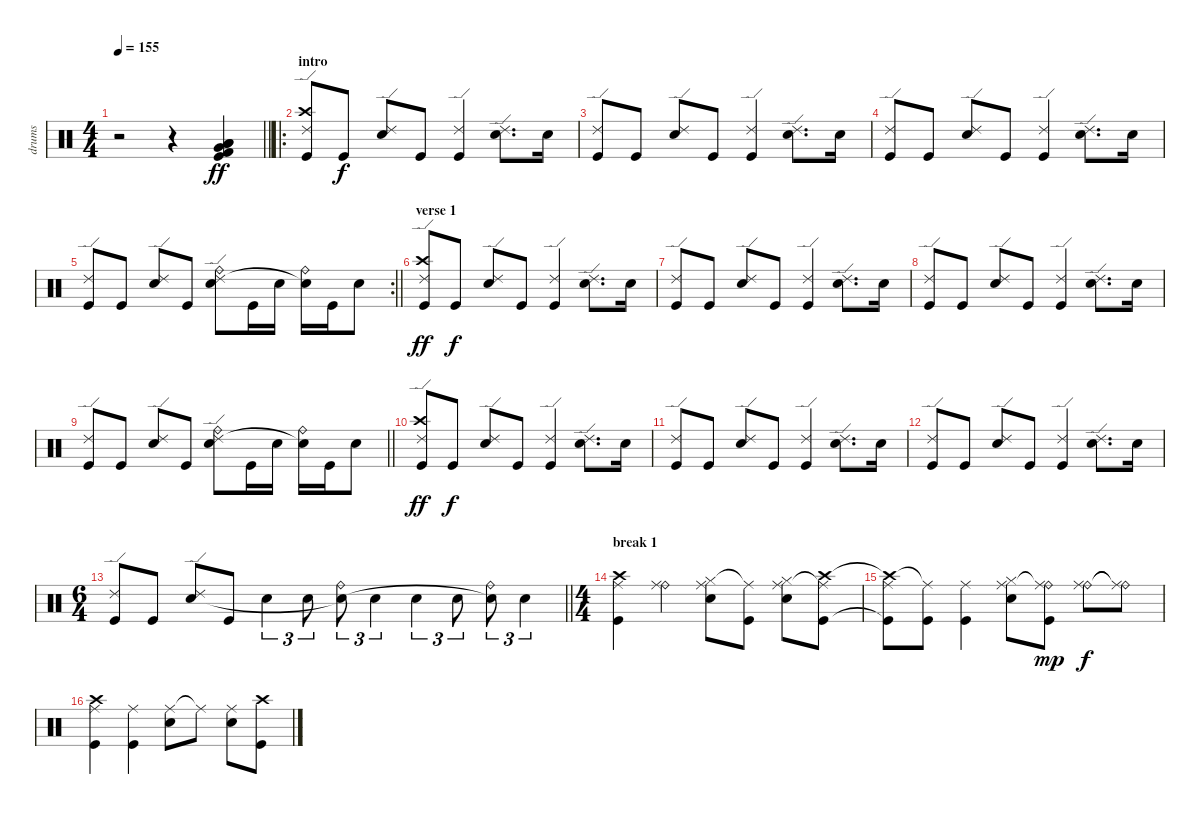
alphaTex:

\track ("drums" "drums") {instrument percussion}
\staff {score}
\articulation defaults
\ts (4 4)
\tempo 155
\clef neutral
\barLineRight lightlight
\ks c
r.2{dy mp} r.4 ("Kick (hit) 2" "Low Tom (hit)" "Very Low Tom (hit)" "Low Floor Tom (hit)" "Kick (hit)").4{dy ff} |
\ro
\section ("" "intro ")
("Crash high (hit)" "Ride (edge) 2" "Kick (hit)").8 "Kick (hit)".8{dy f} ("Ride (edge) 2" "Electric Snare (hit)").8 "Kick (hit)".8 ("Ride (edge) 2" "Kick (hit)").4 ("Ride (edge) 2" "Electric Snare (hit)").8{d} "Electric Snare (hit)".16 |
("Ride (edge) 2" "Kick (hit)").8 "Kick (hit)".8 ("Ride (edge) 2" "Electric Snare (hit)").8 "Kick (hit)".8 ("Ride (edge) 2" "Kick (hit)").4 ("Ride (edge) 2" "Electric Snare (hit)").8{d} "Electric Snare (hit)".16 |
("Ride (edge) 2" "Kick (hit)").8 "Kick (hit)".8 ("Ride (edge) 2" "Electric Snare (hit)").8 "Kick (hit)".8 ("Ride (edge) 2" "Kick (hit)").4 ("Ride (edge) 2" "Electric Snare (hit)").8{d} "Electric Snare (hit)".16 |
\rc 2
\barLineRight lightlight
("Ride (edge) 2" "Kick (hit)").8 "Kick (hit)".8 ("Ride (edge) 2" "Electric Snare (hit)").8 "Kick (hit)".8 ("Ride (bell)" "Ride (edge) 2" "Electric Snare (hit)").8 "Kick (hit)".16 "Electric Snare (hit)".16 ("Ride (bell)" "Electric Snare (hit)"{t}).16 "Kick (hit)".16 "Electric Snare (hit)".8 |
\section ("" "verse 1")
("Crash high (hit)" "Ride (edge) 2" "Kick (hit)").8{dy ff} "Kick (hit)".8{dy f} ("Ride (edge) 2" "Electric Snare (hit)").8 "Kick (hit)".8 ("Ride (edge) 2" "Kick (hit)").4 ("Ride (edge) 2" "Electric Snare (hit)").8{d} "Electric Snare (hit)".16 |
("Ride (edge) 2" "Kick (hit)").8 "Kick (hit)".8 ("Ride (edge) 2" "Electric Snare (hit)").8 "Kick (hit)".8 ("Ride (edge) 2" "Kick (hit)").4 ("Ride (edge) 2" "Electric Snare (hit)").8{d} "Electric Snare (hit)".16 |
("Ride (edge) 2" "Kick (hit)").8 "Kick (hit)".8 ("Ride (edge) 2" "Electric Snare (hit)").8 "Kick (hit)".8 ("Ride (edge) 2" "Kick (hit)").4 ("Ride (edge) 2" "Electric Snare (hit)").8{d} "Electric Snare (hit)".16 |
\barLineRight lightlight
("Ride (edge) 2" "Kick (hit)").8 "Kick (hit)".8 ("Ride (edge) 2" "Electric Snare (hit)").8 "Kick (hit)".8 ("Ride (bell)" "Ride (edge) 2" "Electric Snare (hit)").8 "Kick (hit)".16 "Electric Snare (hit)".16 ("Ride (bell)" "Electric Snare (hit)"{t}).16 "Kick (hit)".16 "Electric Snare (hit)".8 |
("Crash high (hit)" "Ride (edge) 2" "Kick (hit)").8{dy ff} "Kick (hit)".8{dy f} ("Ride (edge) 2" "Electric Snare (hit)").8 "Kick (hit)".8 ("Ride (edge) 2" "Kick (hit)").4 ("Ride (edge) 2" "Electric Snare (hit)").8{d} "Electric Snare (hit)".16 |
("Ride (edge) 2" "Kick (hit)").8 "Kick (hit)".8 ("Ride (edge) 2" "Electric Snare (hit)").8 "Kick (hit)".8 ("Ride (edge) 2" "Kick (hit)").4 ("Ride (edge) 2" "Electric Snare (hit)").8{d} "Electric Snare (hit)".16 |
("Ride (edge) 2" "Kick (hit)").8 "Kick (hit)".8 ("Ride (edge) 2" "Electric Snare (hit)").8 "Kick (hit)".8 ("Ride (edge) 2" "Kick (hit)").4 ("Ride (edge) 2" "Electric Snare (hit)").8{d} "Electric Snare (hit)".16 |
\ts (6 4)
\barLineRight lightlight
("Ride (edge) 2" "Kick (hit)").8 "Kick (hit)".8 ("Ride (edge) 2" "Electric Snare (hit)").8 "Kick (hit)".8 "Electric Snare (hit)".4{tu (3 2)} "Electric Snare (hit)".8{tu (3 2)} ("Ride (bell)" "Electric Snare (hit)"{t}).8{tu (3 2)} "Electric Snare (hit)".4{tu (3 2)} "Electric Snare (hit)".4{tu (3 2)} "Electric Snare (hit)".8{tu (3 2)} ("Ride (bell)" "Electric Snare (hit)"{t}).8{tu (3 2)} "Electric Snare (hit)".4{tu (3 2)} |
\ts (4 4)
\section ("" "break 1")
("Crash high (hit)" "Ride (middle)" "Kick (hit)").4 ("Ride (bell)" "Ride (middle)").4 ("Hi-Hat (closed)" "Ride (middle)" "Electric Snare (hit)").8 ("Ride (middle)"{t} "Kick (hit)").8 ("Hi-Hat (closed)" "Ride (middle)" "Electric Snare (hit)").8 ("Crash high (hit)" "Ride (middle)"{t} "Kick (hit)").8 |
("Crash high (hit)"{t} "Ride (middle)" "Kick (hit)"{t}).8 ("Ride (middle)"{t} "Kick (hit)").8 ("Ride (middle)" "Kick (hit)").4 ("Hi-Hat (closed)" "Ride (middle)" "Electric Snare (hit)").8 ("Ride (bell)" "Ride (middle)"{t} "Kick (hit)").8{dy mp} ("Ride (bell)" "Ride (middle)").8{dy f} ("Ride (bell)"{t} "Ride (middle)"{t}).8 |
("Crash high (hit)" "Ride (middle)" "Kick (hit)").4 ("Ride (middle)" "Kick (hit)").4 ("Ride (middle)" "Electric Snare (hit)").8 "Ride (middle)"{t}.8 ("Ride (middle)" "Electric Snare (hit)").8 ("Crash high (hit)" "Kick (hit)").8
